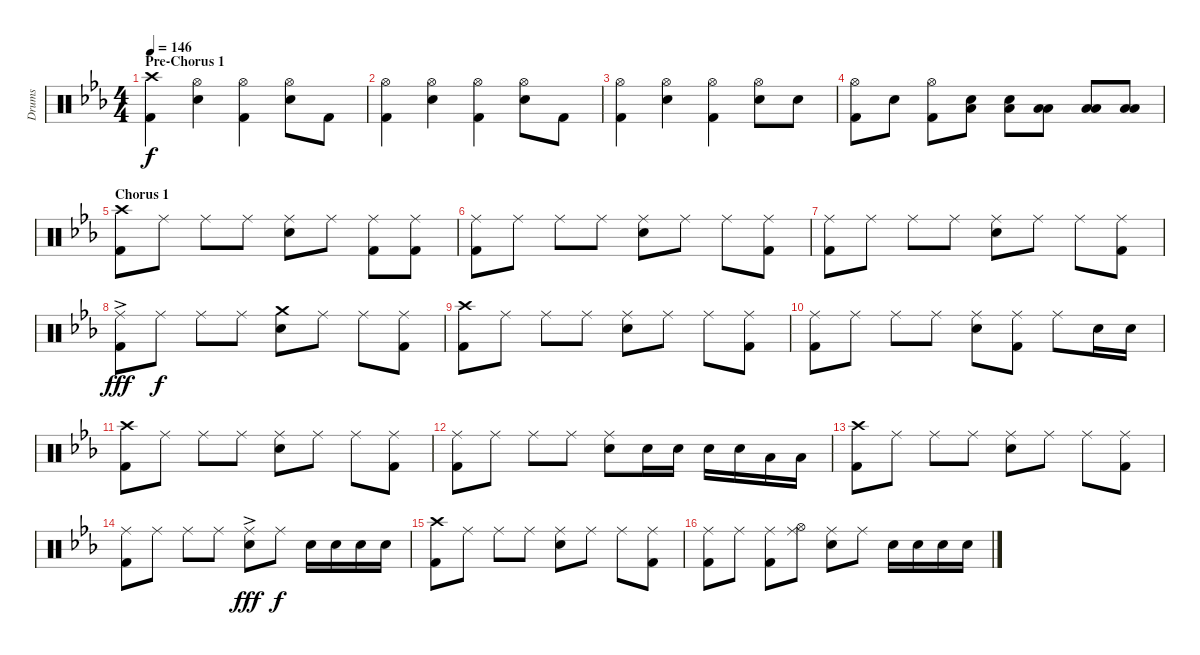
\track ("Drums" "Drums") {instrument percussion}
\staff {score}
\articulation defaults
\ts (4 4)
\section ("" "Pre-Chorus 1")
\tempo 146
\clef neutral
\ks eb
("Crash high (hit)" "Kick (hit) 2").4{dy f} ("Hi-Hat (open)" "Electric Snare (hit)").4 ("Hi-Hat (open)" "Kick (hit) 2").4 ("Hi-Hat (open)" "Electric Snare (hit)").8 "Kick (hit) 2".8 |
("Hi-Hat (open)" "Kick (hit) 2").4 ("Hi-Hat (open)" "Electric Snare (hit)").4 ("Hi-Hat (open)" "Kick (hit) 2").4 ("Hi-Hat (open)" "Electric Snare (hit)").8 "Kick (hit) 2".8 |
("Hi-Hat (open)" "Kick (hit) 2").4 ("Hi-Hat (open)" "Electric Snare (hit)").4 ("Hi-Hat (open)" "Kick (hit) 2").4 ("Hi-Hat (open)" "Electric Snare (hit)").8 "Electric Snare (hit)".8 |
("Hi-Hat (open)" "Kick (hit) 2").8 "Electric Snare (hit)".8 ("Hi-Hat (open)" "Kick (hit) 2").8 ("Low Tom (hit)" "Electric Snare (hit)").8 ("Low Tom (hit)" "Electric Snare (hit)").8 ("Low Tom (hit)" "Low Floor Tom (hit)").8 ("Low Tom (hit)" "Low Floor Tom (hit)").8 ("Low Tom (hit)" "Low Floor Tom (hit)").8 |
\section ("" "Chorus 1")
("Crash high (hit)" "Kick (hit) 2").8 "Ride (middle)".8 "Ride (middle)".8 "Ride (middle)".8 ("Ride (middle)" "Electric Snare (hit)").8 "Ride (middle)".8 ("Ride (middle)" "Kick (hit) 2").8 ("Ride (middle)" "Kick (hit) 2").8 |
("Ride (middle)" "Kick (hit) 2").8 "Ride (middle)".8 "Ride (middle)".8 "Ride (middle)".8 ("Ride (middle)" "Electric Snare (hit)").8 "Ride (middle)".8 "Ride (middle)".8 ("Ride (middle)" "Kick (hit) 2").8 |
("Ride (middle)" "Kick (hit) 2").8 "Ride (middle)".8 "Ride (middle)".8 "Ride (middle)".8 ("Ride (middle)" "Electric Snare (hit)").8 "Ride (middle)".8 "Ride (middle)".8 ("Ride (middle)" "Kick (hit) 2").8 |
("Ride (middle)"{ac} "Kick (hit) 2").8{dy fff} "Ride (middle)".8{dy f} "Ride (middle)".8 "Ride (middle)".8 ("Crash medium (hit)" "Electric Snare (hit)").8 "Ride (middle)".8 "Ride (middle)".8 ("Ride (middle)" "Kick (hit) 2").8 |
("Crash high (hit)" "Kick (hit) 2").8 "Ride (middle)".8 "Ride (middle)".8 "Ride (middle)".8 ("Ride (middle)" "Electric Snare (hit)").8 "Ride (middle)".8 "Ride (middle)".8 ("Ride (middle)" "Kick (hit) 2").8 |
("Ride (middle)" "Kick (hit) 2").8 "Ride (middle)".8 "Ride (middle)".8 "Ride (middle)".8 ("Ride (middle)" "Electric Snare (hit)").8 ("Ride (middle)" "Kick (hit) 2").8 "Ride (middle)".8 "Electric Snare (hit)".16 "Electric Snare (hit)".16 |
("Crash high (hit)" "Kick (hit) 2").8 "Ride (middle)".8 "Ride (middle)".8 "Ride (middle)".8 ("Ride (middle)" "Electric Snare (hit)").8 "Ride (middle)".8 "Ride (middle)".8 ("Ride (middle)" "Kick (hit) 2").8 |
("Ride (middle)" "Kick (hit) 2").8 "Ride (middle)".8 "Ride (middle)".8 "Ride (middle)".8 ("Ride (middle)" "Electric Snare (hit)").8 "Electric Snare (hit)".16 "Electric Snare (hit)".16 "Electric Snare (hit)".16 "Electric Snare (hit)".16 "Low Tom (hit)".16 "Low Floor Tom (hit)".16 |
("Crash high (hit)" "Kick (hit) 2").8 "Ride (middle)".8 "Ride (middle)".8 "Ride (middle)".8 ("Ride (middle)" "Electric Snare (hit)").8 "Ride (middle)".8 "Ride (middle)".8 ("Ride (middle)" "Kick (hit) 2").8 |
("Ride (middle)" "Kick (hit) 2").8 "Ride (middle)".8 "Ride (middle)".8 "Ride (middle)".8 ("Ride (middle)"{ac} "Electric Snare (hit)").8{dy fff} "Ride (middle)".8{dy f} "Electric Snare (hit)".16 "Electric Snare (hit)".16 "Electric Snare (hit)".16 "Electric Snare (hit)".16 |
("Crash high (hit)" "Kick (hit) 2").8 "Ride (middle)".8 "Ride (middle)".8 "Ride (middle)".8 ("Ride (middle)" "Electric Snare (hit)").8 "Ride (middle)".8 "Ride (middle)".8 ("Ride (middle)" "Kick (hit) 2").8 |
("Ride (middle)" "Kick (hit) 2").8 "Ride (middle)".8 ("Ride (middle)" "Kick (hit) 2").8 ("Ride (middle)" "Hi-Hat (open)").8 ("Ride (middle)" "Electric Snare (hit)").8 "Ride (middle)".8 "Electric Snare (hit)".16 "Electric Snare (hit)".16 "Electric Snare (hit)".16 "Electric Snare (hit)".16
